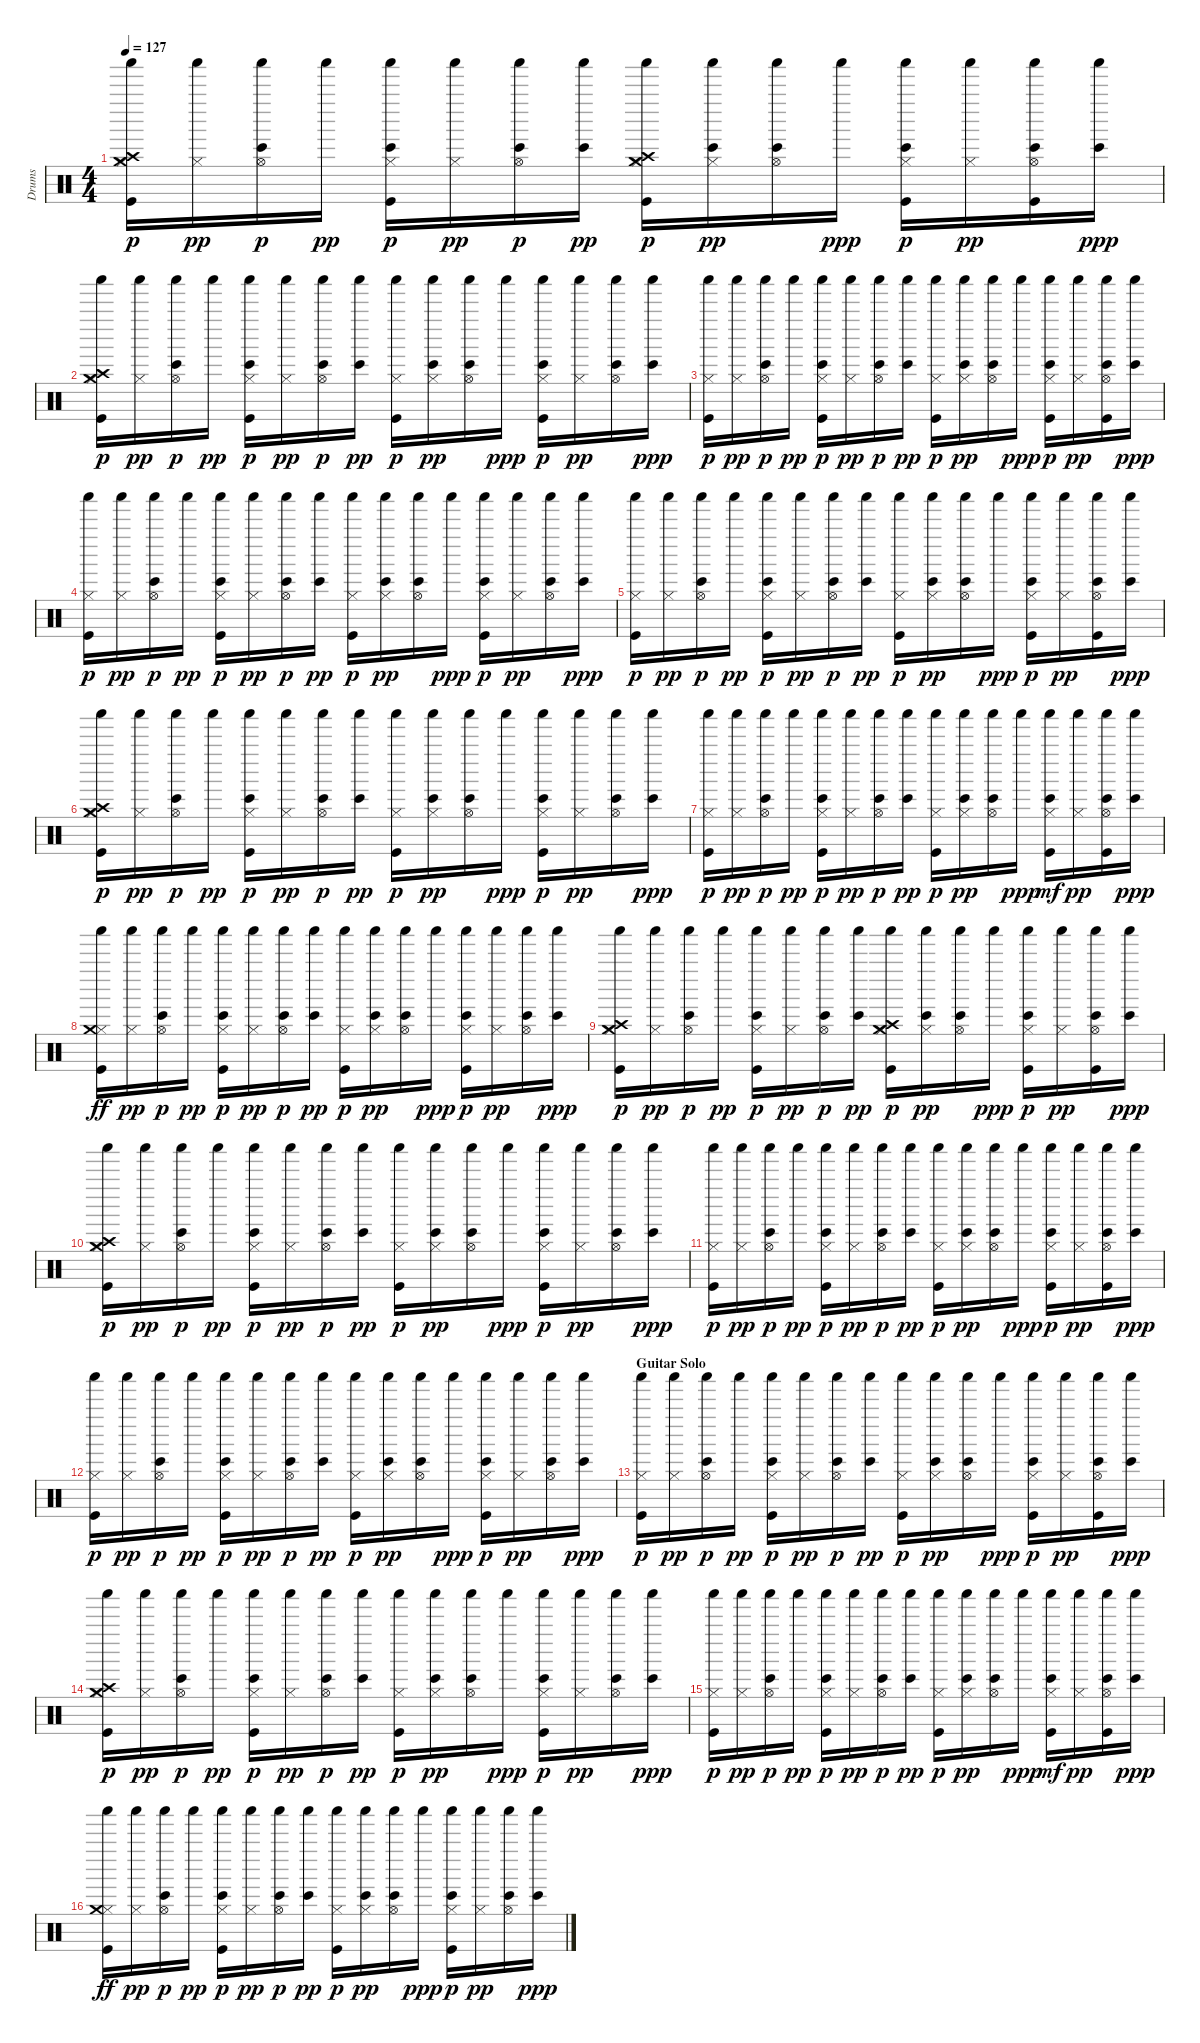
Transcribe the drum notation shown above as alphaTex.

\track ("Drums" "Drums") {instrument percussion}
\staff {score}
\articulation defaults
\ts (4 4)
\tempo 127
\clef neutral
\ks c
("Shaker (hit)" "Crash medium (hit)" "Kick (hit)" "Crash high (hit)" "Hi-Hat (closed)").16{dy p} ("Hi-Hat (closed)" "Shaker (hit)").16{dy pp} ("Bongo High (hit)" "Hi-Hat (open)" "Shaker (hit)").16{dy p} "Shaker (hit)".16{dy pp} ("Bongo High (hit)" "Kick (hit)" "Hi-Hat (closed)" "Shaker (hit)").16{dy p} ("Hi-Hat (closed)" "Shaker (hit)").16{dy pp} ("Bongo High (hit)" "Hi-Hat (open)" "Shaker (hit)").16{dy p} ("Bongo High (hit)" "Shaker (hit)").16{dy pp} ("Shaker (hit)" "Crash high (hit)" "Kick (hit)" "Crash medium (hit)" "Hi-Hat (closed)").16{dy p} ("Bongo High (hit)" "Hi-Hat (closed)" "Shaker (hit)").16{dy pp} ("Bongo High (hit)" "Hi-Hat (open)" "Shaker (hit)").16 "Shaker (hit)".16{dy ppp} ("Bongo High (hit)" "Kick (hit)" "Hi-Hat (closed)" "Shaker (hit)").16{dy p} ("Hi-Hat (closed)" "Shaker (hit)").16{dy pp} ("Kick (hit)" "Bongo High (hit)" "Hi-Hat (open)" "Shaker (hit)").16 ("Bongo High (hit)" "Shaker (hit)").16{dy ppp} |
("Hi-Hat (closed)" "Crash medium (hit)" "Shaker (hit)" "Crash high (hit)" "Kick (hit)").16{dy p} ("Hi-Hat (closed)" "Shaker (hit)").16{dy pp} ("Bongo High (hit)" "Hi-Hat (open)" "Shaker (hit)").16{dy p} "Shaker (hit)".16{dy pp} ("Bongo High (hit)" "Kick (hit)" "Hi-Hat (closed)" "Shaker (hit)").16{dy p} ("Hi-Hat (closed)" "Shaker (hit)").16{dy pp} ("Bongo High (hit)" "Hi-Hat (open)" "Shaker (hit)").16{dy p} ("Bongo High (hit)" "Shaker (hit)").16{dy pp} ("Kick (hit)" "Hi-Hat (closed)" "Shaker (hit)").16{dy p} ("Bongo High (hit)" "Hi-Hat (closed)" "Shaker (hit)").16{dy pp} ("Bongo High (hit)" "Hi-Hat (open)" "Shaker (hit)").16 "Shaker (hit)".16{dy ppp} ("Bongo High (hit)" "Kick (hit)" "Hi-Hat (closed)" "Shaker (hit)").16{dy p} ("Hi-Hat (closed)" "Shaker (hit)").16{dy pp} ("Bongo High (hit)" "Hi-Hat (open)" "Shaker (hit)").16 ("Bongo High (hit)" "Shaker (hit)").16{dy ppp} |
("Kick (hit)" "Hi-Hat (closed)" "Shaker (hit)").16{dy p} ("Hi-Hat (closed)" "Shaker (hit)").16{dy pp} ("Bongo High (hit)" "Hi-Hat (open)" "Shaker (hit)").16{dy p} "Shaker (hit)".16{dy pp} ("Bongo High (hit)" "Kick (hit)" "Hi-Hat (closed)" "Shaker (hit)").16{dy p} ("Hi-Hat (closed)" "Shaker (hit)").16{dy pp} ("Bongo High (hit)" "Hi-Hat (open)" "Shaker (hit)").16{dy p} ("Bongo High (hit)" "Shaker (hit)").16{dy pp} ("Kick (hit)" "Hi-Hat (closed)" "Shaker (hit)").16{dy p} ("Bongo High (hit)" "Hi-Hat (closed)" "Shaker (hit)").16{dy pp} ("Bongo High (hit)" "Hi-Hat (open)" "Shaker (hit)").16 "Shaker (hit)".16{dy ppp} ("Bongo High (hit)" "Kick (hit)" "Hi-Hat (closed)" "Shaker (hit)").16{dy p} ("Hi-Hat (closed)" "Shaker (hit)").16{dy pp} ("Kick (hit)" "Bongo High (hit)" "Hi-Hat (open)" "Shaker (hit)").16 ("Bongo High (hit)" "Shaker (hit)").16{dy ppp} |
("Kick (hit)" "Hi-Hat (closed)" "Shaker (hit)").16{dy p} ("Hi-Hat (closed)" "Shaker (hit)").16{dy pp} ("Bongo High (hit)" "Hi-Hat (open)" "Shaker (hit)").16{dy p} "Shaker (hit)".16{dy pp} ("Bongo High (hit)" "Kick (hit)" "Hi-Hat (closed)" "Shaker (hit)").16{dy p} ("Hi-Hat (closed)" "Shaker (hit)").16{dy pp} ("Bongo High (hit)" "Hi-Hat (open)" "Shaker (hit)").16{dy p} ("Bongo High (hit)" "Shaker (hit)").16{dy pp} ("Kick (hit)" "Hi-Hat (closed)" "Shaker (hit)").16{dy p} ("Bongo High (hit)" "Hi-Hat (closed)" "Shaker (hit)").16{dy pp} ("Bongo High (hit)" "Hi-Hat (open)" "Shaker (hit)").16 "Shaker (hit)".16{dy ppp} ("Bongo High (hit)" "Kick (hit)" "Hi-Hat (closed)" "Shaker (hit)").16{dy p} ("Hi-Hat (closed)" "Shaker (hit)").16{dy pp} ("Bongo High (hit)" "Hi-Hat (open)" "Shaker (hit)").16 ("Bongo High (hit)" "Shaker (hit)").16{dy ppp} |
("Kick (hit)" "Hi-Hat (closed)" "Shaker (hit)").16{dy p} ("Hi-Hat (closed)" "Shaker (hit)").16{dy pp} ("Bongo High (hit)" "Hi-Hat (open)" "Shaker (hit)").16{dy p} "Shaker (hit)".16{dy pp} ("Bongo High (hit)" "Kick (hit)" "Hi-Hat (closed)" "Shaker (hit)").16{dy p} ("Hi-Hat (closed)" "Shaker (hit)").16{dy pp} ("Bongo High (hit)" "Hi-Hat (open)" "Shaker (hit)").16{dy p} ("Bongo High (hit)" "Shaker (hit)").16{dy pp} ("Kick (hit)" "Hi-Hat (closed)" "Shaker (hit)").16{dy p} ("Bongo High (hit)" "Hi-Hat (closed)" "Shaker (hit)").16{dy pp} ("Bongo High (hit)" "Hi-Hat (open)" "Shaker (hit)").16 "Shaker (hit)".16{dy ppp} ("Bongo High (hit)" "Kick (hit)" "Hi-Hat (closed)" "Shaker (hit)").16{dy p} ("Hi-Hat (closed)" "Shaker (hit)").16{dy pp} ("Kick (hit)" "Bongo High (hit)" "Hi-Hat (open)" "Shaker (hit)").16 ("Bongo High (hit)" "Shaker (hit)").16{dy ppp} |
("Kick (hit)" "Hi-Hat (closed)" "Crash medium (hit)" "Shaker (hit)" "Crash high (hit)").16{dy p} ("Hi-Hat (closed)" "Shaker (hit)").16{dy pp} ("Bongo High (hit)" "Hi-Hat (open)" "Shaker (hit)").16{dy p} "Shaker (hit)".16{dy pp} ("Bongo High (hit)" "Kick (hit)" "Hi-Hat (closed)" "Shaker (hit)").16{dy p} ("Hi-Hat (closed)" "Shaker (hit)").16{dy pp} ("Bongo High (hit)" "Hi-Hat (open)" "Shaker (hit)").16{dy p} ("Bongo High (hit)" "Shaker (hit)").16{dy pp} ("Kick (hit)" "Hi-Hat (closed)" "Shaker (hit)").16{dy p} ("Bongo High (hit)" "Hi-Hat (closed)" "Shaker (hit)").16{dy pp} ("Bongo High (hit)" "Hi-Hat (open)" "Shaker (hit)").16 "Shaker (hit)".16{dy ppp} ("Bongo High (hit)" "Kick (hit)" "Hi-Hat (closed)" "Shaker (hit)").16{dy p} ("Hi-Hat (closed)" "Shaker (hit)").16{dy pp} ("Bongo High (hit)" "Hi-Hat (open)" "Shaker (hit)").16 ("Bongo High (hit)" "Shaker (hit)").16{dy ppp} |
("Kick (hit)" "Hi-Hat (closed)" "Shaker (hit)").16{dy p} ("Hi-Hat (closed)" "Shaker (hit)").16{dy pp} ("Bongo High (hit)" "Hi-Hat (open)" "Shaker (hit)").16{dy p} "Shaker (hit)".16{dy pp} ("Bongo High (hit)" "Kick (hit)" "Hi-Hat (closed)" "Shaker (hit)").16{dy p} ("Hi-Hat (closed)" "Shaker (hit)").16{dy pp} ("Bongo High (hit)" "Hi-Hat (open)" "Shaker (hit)").16{dy p} ("Bongo High (hit)" "Shaker (hit)").16{dy pp} ("Kick (hit)" "Hi-Hat (closed)" "Shaker (hit)").16{dy p} ("Bongo High (hit)" "Hi-Hat (closed)" "Shaker (hit)").16{dy pp} ("Bongo High (hit)" "Hi-Hat (open)" "Shaker (hit)").16 "Shaker (hit)".16{dy ppp} ("Kick (hit)" "Hi-Hat (closed)" "Shaker (hit)" "Bongo High (hit)").16{dy mf} ("Hi-Hat (closed)" "Shaker (hit)").16{dy pp} ("Kick (hit)" "Bongo High (hit)" "Hi-Hat (open)" "Shaker (hit)").16 ("Bongo High (hit)" "Shaker (hit)").16{dy ppp} |
("Hi-Hat (closed)" "Shaker (hit)" "Crash medium (hit)" "Kick (hit)").16{dy ff} ("Hi-Hat (closed)" "Shaker (hit)").16{dy pp} ("Bongo High (hit)" "Hi-Hat (open)" "Shaker (hit)").16{dy p} "Shaker (hit)".16{dy pp} ("Bongo High (hit)" "Kick (hit)" "Hi-Hat (closed)" "Shaker (hit)").16{dy p} ("Hi-Hat (closed)" "Shaker (hit)").16{dy pp} ("Bongo High (hit)" "Hi-Hat (open)" "Shaker (hit)").16{dy p} ("Bongo High (hit)" "Shaker (hit)").16{dy pp} ("Kick (hit)" "Hi-Hat (closed)" "Shaker (hit)").16{dy p} ("Bongo High (hit)" "Hi-Hat (closed)" "Shaker (hit)").16{dy pp} ("Bongo High (hit)" "Hi-Hat (open)" "Shaker (hit)").16 "Shaker (hit)".16{dy ppp} ("Bongo High (hit)" "Kick (hit)" "Hi-Hat (closed)" "Shaker (hit)").16{dy p} ("Hi-Hat (closed)" "Shaker (hit)").16{dy pp} ("Bongo High (hit)" "Hi-Hat (open)" "Shaker (hit)").16 ("Bongo High (hit)" "Shaker (hit)").16{dy ppp} |
("Shaker (hit)" "Crash medium (hit)" "Kick (hit)" "Crash high (hit)" "Hi-Hat (closed)").16{dy p} ("Hi-Hat (closed)" "Shaker (hit)").16{dy pp} ("Bongo High (hit)" "Hi-Hat (open)" "Shaker (hit)").16{dy p} "Shaker (hit)".16{dy pp} ("Bongo High (hit)" "Kick (hit)" "Hi-Hat (closed)" "Shaker (hit)").16{dy p} ("Hi-Hat (closed)" "Shaker (hit)").16{dy pp} ("Bongo High (hit)" "Hi-Hat (open)" "Shaker (hit)").16{dy p} ("Bongo High (hit)" "Shaker (hit)").16{dy pp} ("Shaker (hit)" "Crash high (hit)" "Kick (hit)" "Crash medium (hit)" "Hi-Hat (closed)").16{dy p} ("Bongo High (hit)" "Hi-Hat (closed)" "Shaker (hit)").16{dy pp} ("Bongo High (hit)" "Hi-Hat (open)" "Shaker (hit)").16 "Shaker (hit)".16{dy ppp} ("Bongo High (hit)" "Kick (hit)" "Hi-Hat (closed)" "Shaker (hit)").16{dy p} ("Hi-Hat (closed)" "Shaker (hit)").16{dy pp} ("Kick (hit)" "Bongo High (hit)" "Hi-Hat (open)" "Shaker (hit)").16 ("Bongo High (hit)" "Shaker (hit)").16{dy ppp} |
("Hi-Hat (closed)" "Crash medium (hit)" "Shaker (hit)" "Crash high (hit)" "Kick (hit)").16{dy p} ("Hi-Hat (closed)" "Shaker (hit)").16{dy pp} ("Bongo High (hit)" "Hi-Hat (open)" "Shaker (hit)").16{dy p} "Shaker (hit)".16{dy pp} ("Bongo High (hit)" "Kick (hit)" "Hi-Hat (closed)" "Shaker (hit)").16{dy p} ("Hi-Hat (closed)" "Shaker (hit)").16{dy pp} ("Bongo High (hit)" "Hi-Hat (open)" "Shaker (hit)").16{dy p} ("Bongo High (hit)" "Shaker (hit)").16{dy pp} ("Kick (hit)" "Hi-Hat (closed)" "Shaker (hit)").16{dy p} ("Bongo High (hit)" "Hi-Hat (closed)" "Shaker (hit)").16{dy pp} ("Bongo High (hit)" "Hi-Hat (open)" "Shaker (hit)").16 "Shaker (hit)".16{dy ppp} ("Bongo High (hit)" "Kick (hit)" "Hi-Hat (closed)" "Shaker (hit)").16{dy p} ("Hi-Hat (closed)" "Shaker (hit)").16{dy pp} ("Bongo High (hit)" "Hi-Hat (open)" "Shaker (hit)").16 ("Bongo High (hit)" "Shaker (hit)").16{dy ppp} |
("Kick (hit)" "Hi-Hat (closed)" "Shaker (hit)").16{dy p} ("Hi-Hat (closed)" "Shaker (hit)").16{dy pp} ("Bongo High (hit)" "Hi-Hat (open)" "Shaker (hit)").16{dy p} "Shaker (hit)".16{dy pp} ("Bongo High (hit)" "Kick (hit)" "Hi-Hat (closed)" "Shaker (hit)").16{dy p} ("Hi-Hat (closed)" "Shaker (hit)").16{dy pp} ("Bongo High (hit)" "Hi-Hat (open)" "Shaker (hit)").16{dy p} ("Bongo High (hit)" "Shaker (hit)").16{dy pp} ("Kick (hit)" "Hi-Hat (closed)" "Shaker (hit)").16{dy p} ("Bongo High (hit)" "Hi-Hat (closed)" "Shaker (hit)").16{dy pp} ("Bongo High (hit)" "Hi-Hat (open)" "Shaker (hit)").16 "Shaker (hit)".16{dy ppp} ("Bongo High (hit)" "Kick (hit)" "Hi-Hat (closed)" "Shaker (hit)").16{dy p} ("Hi-Hat (closed)" "Shaker (hit)").16{dy pp} ("Kick (hit)" "Bongo High (hit)" "Hi-Hat (open)" "Shaker (hit)").16 ("Bongo High (hit)" "Shaker (hit)").16{dy ppp} |
("Kick (hit)" "Hi-Hat (closed)" "Shaker (hit)").16{dy p} ("Hi-Hat (closed)" "Shaker (hit)").16{dy pp} ("Bongo High (hit)" "Hi-Hat (open)" "Shaker (hit)").16{dy p} "Shaker (hit)".16{dy pp} ("Bongo High (hit)" "Kick (hit)" "Hi-Hat (closed)" "Shaker (hit)").16{dy p} ("Hi-Hat (closed)" "Shaker (hit)").16{dy pp} ("Bongo High (hit)" "Hi-Hat (open)" "Shaker (hit)").16{dy p} ("Bongo High (hit)" "Shaker (hit)").16{dy pp} ("Kick (hit)" "Hi-Hat (closed)" "Shaker (hit)").16{dy p} ("Bongo High (hit)" "Hi-Hat (closed)" "Shaker (hit)").16{dy pp} ("Bongo High (hit)" "Hi-Hat (open)" "Shaker (hit)").16 "Shaker (hit)".16{dy ppp} ("Bongo High (hit)" "Kick (hit)" "Hi-Hat (closed)" "Shaker (hit)").16{dy p} ("Hi-Hat (closed)" "Shaker (hit)").16{dy pp} ("Bongo High (hit)" "Hi-Hat (open)" "Shaker (hit)").16 ("Bongo High (hit)" "Shaker (hit)").16{dy ppp} |
\section ("" "Guitar Solo")
("Kick (hit)" "Hi-Hat (closed)" "Shaker (hit)").16{dy p} ("Hi-Hat (closed)" "Shaker (hit)").16{dy pp} ("Bongo High (hit)" "Hi-Hat (open)" "Shaker (hit)").16{dy p} "Shaker (hit)".16{dy pp} ("Bongo High (hit)" "Kick (hit)" "Hi-Hat (closed)" "Shaker (hit)").16{dy p} ("Hi-Hat (closed)" "Shaker (hit)").16{dy pp} ("Bongo High (hit)" "Hi-Hat (open)" "Shaker (hit)").16{dy p} ("Bongo High (hit)" "Shaker (hit)").16{dy pp} ("Kick (hit)" "Hi-Hat (closed)" "Shaker (hit)").16{dy p} ("Bongo High (hit)" "Hi-Hat (closed)" "Shaker (hit)").16{dy pp} ("Bongo High (hit)" "Hi-Hat (open)" "Shaker (hit)").16 "Shaker (hit)".16{dy ppp} ("Bongo High (hit)" "Kick (hit)" "Hi-Hat (closed)" "Shaker (hit)").16{dy p} ("Hi-Hat (closed)" "Shaker (hit)").16{dy pp} ("Kick (hit)" "Bongo High (hit)" "Hi-Hat (open)" "Shaker (hit)").16 ("Bongo High (hit)" "Shaker (hit)").16{dy ppp} |
("Kick (hit)" "Hi-Hat (closed)" "Crash medium (hit)" "Shaker (hit)" "Crash high (hit)").16{dy p} ("Hi-Hat (closed)" "Shaker (hit)").16{dy pp} ("Bongo High (hit)" "Hi-Hat (open)" "Shaker (hit)").16{dy p} "Shaker (hit)".16{dy pp} ("Bongo High (hit)" "Kick (hit)" "Hi-Hat (closed)" "Shaker (hit)").16{dy p} ("Hi-Hat (closed)" "Shaker (hit)").16{dy pp} ("Bongo High (hit)" "Hi-Hat (open)" "Shaker (hit)").16{dy p} ("Bongo High (hit)" "Shaker (hit)").16{dy pp} ("Kick (hit)" "Hi-Hat (closed)" "Shaker (hit)").16{dy p} ("Bongo High (hit)" "Hi-Hat (closed)" "Shaker (hit)").16{dy pp} ("Bongo High (hit)" "Hi-Hat (open)" "Shaker (hit)").16 "Shaker (hit)".16{dy ppp} ("Bongo High (hit)" "Kick (hit)" "Hi-Hat (closed)" "Shaker (hit)").16{dy p} ("Hi-Hat (closed)" "Shaker (hit)").16{dy pp} ("Bongo High (hit)" "Hi-Hat (open)" "Shaker (hit)").16 ("Bongo High (hit)" "Shaker (hit)").16{dy ppp} |
("Kick (hit)" "Hi-Hat (closed)" "Shaker (hit)").16{dy p} ("Hi-Hat (closed)" "Shaker (hit)").16{dy pp} ("Bongo High (hit)" "Hi-Hat (open)" "Shaker (hit)").16{dy p} "Shaker (hit)".16{dy pp} ("Bongo High (hit)" "Kick (hit)" "Hi-Hat (closed)" "Shaker (hit)").16{dy p} ("Hi-Hat (closed)" "Shaker (hit)").16{dy pp} ("Bongo High (hit)" "Hi-Hat (open)" "Shaker (hit)").16{dy p} ("Bongo High (hit)" "Shaker (hit)").16{dy pp} ("Kick (hit)" "Hi-Hat (closed)" "Shaker (hit)").16{dy p} ("Bongo High (hit)" "Hi-Hat (closed)" "Shaker (hit)").16{dy pp} ("Bongo High (hit)" "Hi-Hat (open)" "Shaker (hit)").16 "Shaker (hit)".16{dy ppp} ("Kick (hit)" "Hi-Hat (closed)" "Shaker (hit)" "Bongo High (hit)").16{dy mf} ("Hi-Hat (closed)" "Shaker (hit)").16{dy pp} ("Kick (hit)" "Bongo High (hit)" "Hi-Hat (open)" "Shaker (hit)").16 ("Bongo High (hit)" "Shaker (hit)").16{dy ppp} |
("Hi-Hat (closed)" "Shaker (hit)" "Crash medium (hit)" "Kick (hit)").16{dy ff} ("Hi-Hat (closed)" "Shaker (hit)").16{dy pp} ("Bongo High (hit)" "Hi-Hat (open)" "Shaker (hit)").16{dy p} "Shaker (hit)".16{dy pp} ("Bongo High (hit)" "Kick (hit)" "Hi-Hat (closed)" "Shaker (hit)").16{dy p} ("Hi-Hat (closed)" "Shaker (hit)").16{dy pp} ("Bongo High (hit)" "Hi-Hat (open)" "Shaker (hit)").16{dy p} ("Bongo High (hit)" "Shaker (hit)").16{dy pp} ("Kick (hit)" "Hi-Hat (closed)" "Shaker (hit)").16{dy p} ("Bongo High (hit)" "Hi-Hat (closed)" "Shaker (hit)").16{dy pp} ("Bongo High (hit)" "Hi-Hat (open)" "Shaker (hit)").16 "Shaker (hit)".16{dy ppp} ("Bongo High (hit)" "Kick (hit)" "Hi-Hat (closed)" "Shaker (hit)").16{dy p} ("Hi-Hat (closed)" "Shaker (hit)").16{dy pp} ("Bongo High (hit)" "Hi-Hat (open)" "Shaker (hit)").16 ("Bongo High (hit)" "Shaker (hit)").16{dy ppp}
